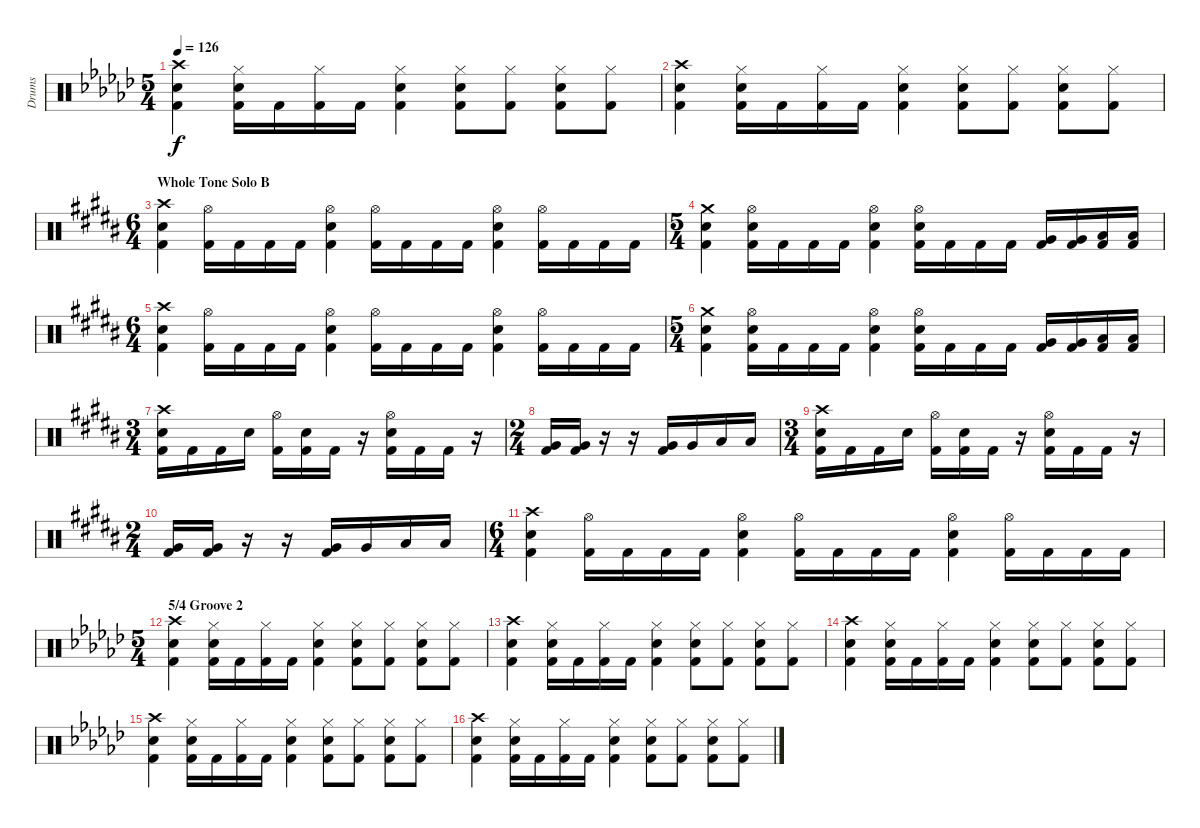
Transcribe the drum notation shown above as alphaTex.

\track ("Drums" "Drums") {instrument percussion}
\staff {score}
\articulation defaults
\ts (5 4)
\tempo 126
\clef neutral
\ks ebminor
("Crash high (hit)" "Electric Snare (hit)" "Kick (hit) 2").4{dy f} ("Hi-Hat (closed)" "Electric Snare (hit)" "Kick (hit) 2").16 "Kick (hit) 2".16 ("Hi-Hat (closed)" "Kick (hit) 2").16 "Kick (hit) 2".16 ("Hi-Hat (closed)" "Electric Snare (hit)" "Kick (hit) 2").4 ("Hi-Hat (closed)" "Electric Snare (hit)" "Kick (hit) 2").8 ("Hi-Hat (closed)" "Kick (hit) 2").8 ("Hi-Hat (closed)" "Electric Snare (hit)" "Kick (hit) 2").8 ("Hi-Hat (closed)" "Kick (hit) 2").8 |
("Crash high (hit)" "Electric Snare (hit)" "Kick (hit) 2").4 ("Hi-Hat (closed)" "Electric Snare (hit)" "Kick (hit) 2").16 "Kick (hit) 2".16 ("Hi-Hat (closed)" "Kick (hit) 2").16 "Kick (hit) 2".16 ("Hi-Hat (closed)" "Electric Snare (hit)" "Kick (hit) 2").4 ("Hi-Hat (closed)" "Electric Snare (hit)" "Kick (hit) 2").8 ("Hi-Hat (closed)" "Kick (hit) 2").8 ("Hi-Hat (closed)" "Electric Snare (hit)" "Kick (hit) 2").8 ("Hi-Hat (closed)" "Kick (hit) 2").8 |
\ts (6 4)
\section ("" "Whole Tone Solo B")
\ks b
("Crash high (hit)" "Electric Snare (hit)" "Kick (hit) 2").4 ("Hi-Hat (open)" "Kick (hit) 2").16 "Kick (hit) 2".16 "Kick (hit) 2".16 "Kick (hit) 2".16 ("Hi-Hat (open)" "Electric Snare (hit)" "Kick (hit) 2").4 ("Hi-Hat (open)" "Kick (hit) 2").16 "Kick (hit) 2".16 "Kick (hit) 2".16 "Kick (hit) 2".16 ("Hi-Hat (open)" "Electric Snare (hit)" "Kick (hit) 2").4 ("Hi-Hat (open)" "Kick (hit) 2").16 "Kick (hit) 2".16 "Kick (hit) 2".16 "Kick (hit) 2".16 |
\ts (5 4)
("Crash medium (hit)" "Electric Snare (hit)" "Kick (hit) 2").4 ("Hi-Hat (open)" "Electric Snare (hit)" "Kick (hit) 2").16 "Kick (hit) 2".16 "Kick (hit) 2".16 "Kick (hit) 2".16 ("Hi-Hat (open)" "Electric Snare (hit)" "Kick (hit) 2").4 ("Hi-Hat (open)" "Electric Snare (hit)" "Kick (hit) 2").16 "Kick (hit) 2".16 "Kick (hit) 2".16 "Kick (hit) 2".16 ("Very Low Tom (hit)" "Kick (hit) 2").16 ("Very Low Tom (hit)" "Kick (hit) 2").16 ("Low Floor Tom (hit)" "Kick (hit) 2").16 ("Low Floor Tom (hit)" "Kick (hit) 2").16 |
\ts (6 4)
("Crash high (hit)" "Electric Snare (hit)" "Kick (hit) 2").4 ("Hi-Hat (open)" "Kick (hit) 2").16 "Kick (hit) 2".16 "Kick (hit) 2".16 "Kick (hit) 2".16 ("Hi-Hat (open)" "Electric Snare (hit)" "Kick (hit) 2").4 ("Hi-Hat (open)" "Kick (hit) 2").16 "Kick (hit) 2".16 "Kick (hit) 2".16 "Kick (hit) 2".16 ("Hi-Hat (open)" "Electric Snare (hit)" "Kick (hit) 2").4 ("Hi-Hat (open)" "Kick (hit) 2").16 "Kick (hit) 2".16 "Kick (hit) 2".16 "Kick (hit) 2".16 |
\ts (5 4)
("Crash medium (hit)" "Electric Snare (hit)" "Kick (hit) 2").4 ("Hi-Hat (open)" "Electric Snare (hit)" "Kick (hit) 2").16 "Kick (hit) 2".16 "Kick (hit) 2".16 "Kick (hit) 2".16 ("Hi-Hat (open)" "Electric Snare (hit)" "Kick (hit) 2").4 ("Hi-Hat (open)" "Electric Snare (hit)" "Kick (hit) 2").16 "Kick (hit) 2".16 "Kick (hit) 2".16 "Kick (hit) 2".16 ("Very Low Tom (hit)" "Kick (hit) 2").16 ("Very Low Tom (hit)" "Kick (hit) 2").16 ("Low Floor Tom (hit)" "Kick (hit) 2").16 ("Low Floor Tom (hit)" "Kick (hit) 2").16 |
\ts (3 4)
("Crash high (hit)" "Electric Snare (hit)" "Kick (hit) 2").16 "Kick (hit) 2".16 "Kick (hit) 2".16 "Electric Snare (hit)".16 ("Hi-Hat (open)" "Kick (hit) 2").16 ("Electric Snare (hit)" "Kick (hit) 2").16 "Kick (hit) 2".16 r.16 ("Hi-Hat (open)" "Electric Snare (hit)" "Kick (hit) 2").16 "Kick (hit) 2".16 "Kick (hit) 2".16 r.16 |
\ts (2 4)
("Very Low Tom (hit)" "Kick (hit) 2").16 ("Very Low Tom (hit)" "Kick (hit) 2").16 r.16 r.16 ("Very Low Tom (hit)" "Kick (hit) 2").16 "Very Low Tom (hit)".16 "Low Floor Tom (hit)".16 "Low Floor Tom (hit)".16 |
\ts (3 4)
("Crash high (hit)" "Electric Snare (hit)" "Kick (hit) 2").16 "Kick (hit) 2".16 "Kick (hit) 2".16 "Electric Snare (hit)".16 ("Hi-Hat (open)" "Kick (hit) 2").16 ("Electric Snare (hit)" "Kick (hit) 2").16 "Kick (hit) 2".16 r.16 ("Hi-Hat (open)" "Electric Snare (hit)" "Kick (hit) 2").16 "Kick (hit) 2".16 "Kick (hit) 2".16 r.16 |
\ts (2 4)
("Very Low Tom (hit)" "Kick (hit) 2").16 ("Very Low Tom (hit)" "Kick (hit) 2").16 r.16 r.16 ("Very Low Tom (hit)" "Kick (hit) 2").16 "Very Low Tom (hit)".16 "Low Floor Tom (hit)".16 "Low Floor Tom (hit)".16 |
\ts (6 4)
("Crash high (hit)" "Electric Snare (hit)" "Kick (hit) 2").4 ("Hi-Hat (open)" "Kick (hit) 2").16 "Kick (hit) 2".16 "Kick (hit) 2".16 "Kick (hit) 2".16 ("Hi-Hat (open)" "Electric Snare (hit)" "Kick (hit) 2").4 ("Hi-Hat (open)" "Kick (hit) 2").16 "Kick (hit) 2".16 "Kick (hit) 2".16 "Kick (hit) 2".16 ("Hi-Hat (open)" "Electric Snare (hit)" "Kick (hit) 2").4 ("Hi-Hat (open)" "Kick (hit) 2").16 "Kick (hit) 2".16 "Kick (hit) 2".16 "Kick (hit) 2".16 |
\ts (5 4)
\section ("" "5/4 Groove 2")
\ks ebminor
("Crash high (hit)" "Electric Snare (hit)" "Kick (hit) 2").4 ("Hi-Hat (closed)" "Electric Snare (hit)" "Kick (hit) 2").16 "Kick (hit) 2".16 ("Hi-Hat (closed)" "Kick (hit) 2").16 "Kick (hit) 2".16 ("Hi-Hat (closed)" "Electric Snare (hit)" "Kick (hit) 2").4 ("Hi-Hat (closed)" "Electric Snare (hit)" "Kick (hit) 2").8 ("Hi-Hat (closed)" "Kick (hit) 2").8 ("Hi-Hat (closed)" "Electric Snare (hit)" "Kick (hit) 2").8 ("Hi-Hat (closed)" "Kick (hit) 2").8 |
("Crash high (hit)" "Electric Snare (hit)" "Kick (hit) 2").4 ("Hi-Hat (closed)" "Electric Snare (hit)" "Kick (hit) 2").16 "Kick (hit) 2".16 ("Hi-Hat (closed)" "Kick (hit) 2").16 "Kick (hit) 2".16 ("Hi-Hat (closed)" "Electric Snare (hit)" "Kick (hit) 2").4 ("Hi-Hat (closed)" "Electric Snare (hit)" "Kick (hit) 2").8 ("Hi-Hat (closed)" "Kick (hit) 2").8 ("Hi-Hat (closed)" "Electric Snare (hit)" "Kick (hit) 2").8 ("Hi-Hat (closed)" "Kick (hit) 2").8 |
("Crash high (hit)" "Electric Snare (hit)" "Kick (hit) 2").4 ("Hi-Hat (closed)" "Electric Snare (hit)" "Kick (hit) 2").16 "Kick (hit) 2".16 ("Hi-Hat (closed)" "Kick (hit) 2").16 "Kick (hit) 2".16 ("Hi-Hat (closed)" "Electric Snare (hit)" "Kick (hit) 2").4 ("Hi-Hat (closed)" "Electric Snare (hit)" "Kick (hit) 2").8 ("Hi-Hat (closed)" "Kick (hit) 2").8 ("Hi-Hat (closed)" "Electric Snare (hit)" "Kick (hit) 2").8 ("Hi-Hat (closed)" "Kick (hit) 2").8 |
("Crash high (hit)" "Electric Snare (hit)" "Kick (hit) 2").4 ("Hi-Hat (closed)" "Electric Snare (hit)" "Kick (hit) 2").16 "Kick (hit) 2".16 ("Hi-Hat (closed)" "Kick (hit) 2").16 "Kick (hit) 2".16 ("Hi-Hat (closed)" "Electric Snare (hit)" "Kick (hit) 2").4 ("Hi-Hat (closed)" "Electric Snare (hit)" "Kick (hit) 2").8 ("Hi-Hat (closed)" "Kick (hit) 2").8 ("Hi-Hat (closed)" "Electric Snare (hit)" "Kick (hit) 2").8 ("Hi-Hat (closed)" "Kick (hit) 2").8 |
("Crash high (hit)" "Electric Snare (hit)" "Kick (hit) 2").4 ("Hi-Hat (closed)" "Electric Snare (hit)" "Kick (hit) 2").16 "Kick (hit) 2".16 ("Hi-Hat (closed)" "Kick (hit) 2").16 "Kick (hit) 2".16 ("Hi-Hat (closed)" "Electric Snare (hit)" "Kick (hit) 2").4 ("Hi-Hat (closed)" "Electric Snare (hit)" "Kick (hit) 2").8 ("Hi-Hat (closed)" "Kick (hit) 2").8 ("Hi-Hat (closed)" "Electric Snare (hit)" "Kick (hit) 2").8 ("Hi-Hat (closed)" "Kick (hit) 2").8
